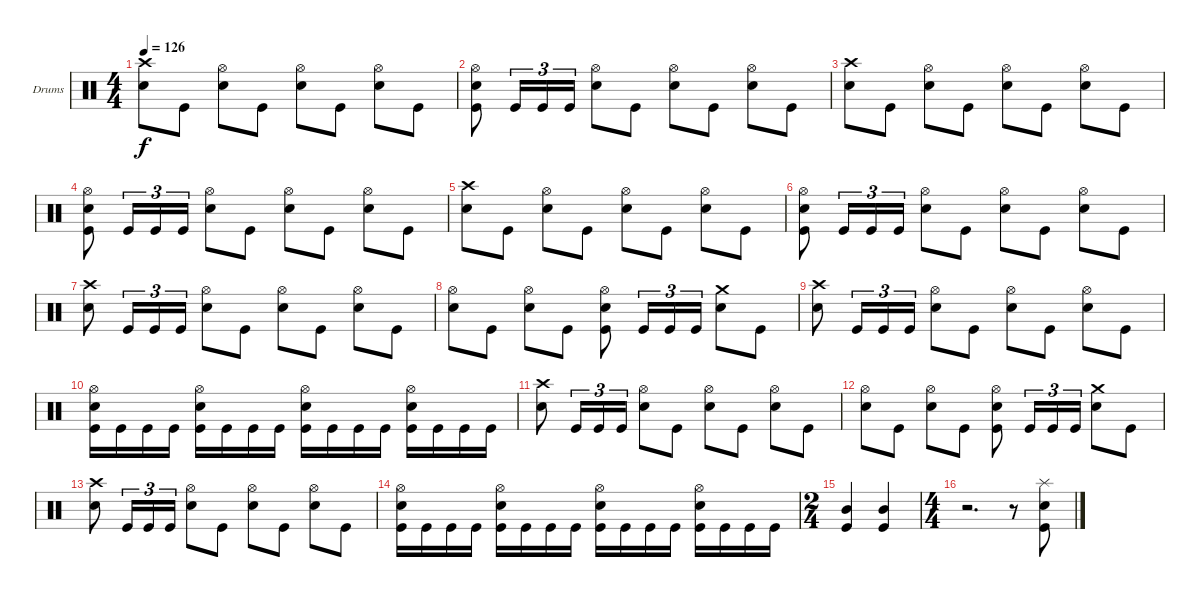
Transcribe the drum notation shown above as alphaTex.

\bracketExtendMode groupsimilarinstruments
\firstSystemTrackNameOrientation horizontal
\otherSystemsTrackNameOrientation horizontal
\track ("Drumkit" "Drums") {instrument percussion}
\staff {score}
\articulation defaults
\ts (4 4)
\tempo 126
\clef neutral
\ks c
("Crash high (hit)" "Snare (hit) 2").8{dy f} "Kick (hit)".8 ("Hi-Hat (open)" "Snare (hit) 2").8 "Kick (hit)".8 ("Hi-Hat (open)" "Snare (hit) 2").8 "Kick (hit)".8 ("Hi-Hat (open)" "Snare (hit) 2").8 "Kick (hit)".8 |
("Kick (hit)" "Hi-Hat (open)" "Snare (hit) 2").8 "Kick (hit)".16{tu (3 2)} "Kick (hit)".16{tu (3 2)} "Kick (hit)".16{tu (3 2)} ("Hi-Hat (open)" "Snare (hit) 2").8 "Kick (hit)".8 ("Hi-Hat (open)" "Snare (hit) 2").8 "Kick (hit)".8 ("Hi-Hat (open)" "Snare (hit) 2").8 "Kick (hit)".8 |
("Crash high (hit)" "Snare (hit) 2").8 "Kick (hit)".8 ("Hi-Hat (open)" "Snare (hit) 2").8 "Kick (hit)".8 ("Hi-Hat (open)" "Snare (hit) 2").8 "Kick (hit)".8 ("Hi-Hat (open)" "Snare (hit) 2").8 "Kick (hit)".8 |
("Kick (hit)" "Hi-Hat (open)" "Snare (hit) 2").8 "Kick (hit)".16{tu (3 2)} "Kick (hit)".16{tu (3 2)} "Kick (hit)".16{tu (3 2)} ("Hi-Hat (open)" "Snare (hit) 2").8 "Kick (hit)".8 ("Hi-Hat (open)" "Snare (hit) 2").8 "Kick (hit)".8 ("Hi-Hat (open)" "Snare (hit) 2").8 "Kick (hit)".8 |
("Crash high (hit)" "Snare (hit) 2").8 "Kick (hit)".8 ("Hi-Hat (open)" "Snare (hit) 2").8 "Kick (hit)".8 ("Hi-Hat (open)" "Snare (hit) 2").8 "Kick (hit)".8 ("Hi-Hat (open)" "Snare (hit) 2").8 "Kick (hit)".8 |
("Kick (hit)" "Hi-Hat (open)" "Snare (hit) 2").8 "Kick (hit)".16{tu (3 2)} "Kick (hit)".16{tu (3 2)} "Kick (hit)".16{tu (3 2)} ("Hi-Hat (open)" "Snare (hit) 2").8 "Kick (hit)".8 ("Hi-Hat (open)" "Snare (hit) 2").8 "Kick (hit)".8 ("Hi-Hat (open)" "Snare (hit) 2").8 "Kick (hit)".8 |
("Crash high (hit)" "Snare (hit) 2").8 "Kick (hit)".16{tu (3 2)} "Kick (hit)".16{tu (3 2)} "Kick (hit)".16{tu (3 2)} ("Hi-Hat (open)" "Snare (hit) 2").8 "Kick (hit)".8 ("Hi-Hat (open)" "Snare (hit) 2").8 "Kick (hit)".8 ("Hi-Hat (open)" "Snare (hit) 2").8 "Kick (hit)".8 |
("Hi-Hat (open)" "Snare (hit) 2").8 "Kick (hit)".8 ("Hi-Hat (open)" "Snare (hit) 2").8 "Kick (hit)".8 ("Hi-Hat (open)" "Snare (hit) 2" "Kick (hit)").8 "Kick (hit)".16{tu (3 2)} "Kick (hit)".16{tu (3 2)} "Kick (hit)".16{tu (3 2)} ("Crash medium (hit)" "Snare (hit) 2").8 "Kick (hit)".8 |
("Crash high (hit)" "Snare (hit) 2").8 "Kick (hit)".16{tu (3 2)} "Kick (hit)".16{tu (3 2)} "Kick (hit)".16{tu (3 2)} ("Hi-Hat (open)" "Snare (hit) 2").8 "Kick (hit)".8 ("Hi-Hat (open)" "Snare (hit) 2").8 "Kick (hit)".8 ("Hi-Hat (open)" "Snare (hit) 2").8 "Kick (hit)".8 |
("Hi-Hat (open)" "Snare (hit) 2" "Kick (hit)").16 "Kick (hit)".16 "Kick (hit)".16 "Kick (hit)".16 ("Hi-Hat (open)" "Snare (hit) 2" "Kick (hit)").16 "Kick (hit)".16 "Kick (hit)".16 "Kick (hit)".16 ("Hi-Hat (open)" "Snare (hit) 2" "Kick (hit)").16 "Kick (hit)".16 "Kick (hit)".16 "Kick (hit)".16 ("Hi-Hat (open)" "Snare (hit) 2" "Kick (hit)").16 "Kick (hit)".16 "Kick (hit)".16 "Kick (hit)".16 |
("Crash high (hit)" "Snare (hit) 2").8 "Kick (hit)".16{tu (3 2)} "Kick (hit)".16{tu (3 2)} "Kick (hit)".16{tu (3 2)} ("Hi-Hat (open)" "Snare (hit) 2").8 "Kick (hit)".8 ("Hi-Hat (open)" "Snare (hit) 2").8 "Kick (hit)".8 ("Hi-Hat (open)" "Snare (hit) 2").8 "Kick (hit)".8 |
("Hi-Hat (open)" "Snare (hit) 2").8 "Kick (hit)".8 ("Hi-Hat (open)" "Snare (hit) 2").8 "Kick (hit)".8 ("Hi-Hat (open)" "Snare (hit) 2" "Kick (hit)").8 "Kick (hit)".16{tu (3 2)} "Kick (hit)".16{tu (3 2)} "Kick (hit)".16{tu (3 2)} ("Crash medium (hit)" "Snare (hit) 2").8 "Kick (hit)".8 |
("Crash high (hit)" "Snare (hit) 2").8 "Kick (hit)".16{tu (3 2)} "Kick (hit)".16{tu (3 2)} "Kick (hit)".16{tu (3 2)} ("Hi-Hat (open)" "Snare (hit) 2").8 "Kick (hit)".8 ("Hi-Hat (open)" "Snare (hit) 2").8 "Kick (hit)".8 ("Hi-Hat (open)" "Snare (hit) 2").8 "Kick (hit)".8 |
("Hi-Hat (open)" "Snare (hit) 2" "Kick (hit)").16 "Kick (hit)".16 "Kick (hit)".16 "Kick (hit)".16 ("Hi-Hat (open)" "Snare (hit) 2" "Kick (hit)").16 "Kick (hit)".16 "Kick (hit)".16 "Kick (hit)".16 ("Hi-Hat (open)" "Snare (hit) 2" "Kick (hit)").16 "Kick (hit)".16 "Kick (hit)".16 "Kick (hit)".16 ("Hi-Hat (open)" "Snare (hit) 2" "Kick (hit)").16 "Kick (hit)".16 "Kick (hit)".16 "Kick (hit)".16 |
\ts (2 4)
\beaming (8 2 2)
("Kick (hit)" "Mid Tom (hit)").4 ("Kick (hit)" "Mid Tom (hit)").4 |
\ts (4 4)
\beaming (8 2 2 2 2)
r.2{d} r.8 ("Splash (hit)" "Snare (hit) 2" "Kick (hit)").8
